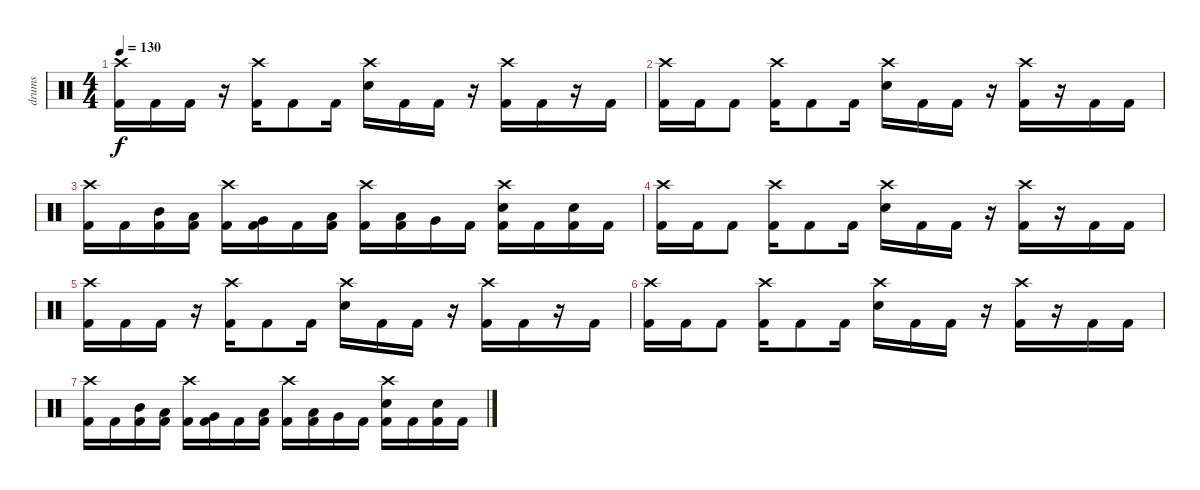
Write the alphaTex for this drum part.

\track ("drums" "drums") {instrument percussion}
\staff {score}
\articulation defaults
\ts (4 4)
\tempo 130
\clef neutral
\ks c
("Crash high (hit)" "Kick (hit) 2").16{dy f} "Kick (hit) 2".16 "Kick (hit) 2".16 r.16 ("Crash high (hit)" "Kick (hit) 2").16 "Kick (hit) 2".8 "Kick (hit) 2".16 ("Crash high (hit)" "Snare (hit) 2").16 "Kick (hit) 2".16 "Kick (hit) 2".16 r.16 ("Crash high (hit)" "Kick (hit) 2").16 "Kick (hit) 2".16 r.16 "Kick (hit) 2".16 |
("Crash high (hit)" "Kick (hit) 2").16 "Kick (hit) 2".16 "Kick (hit) 2".8 ("Crash high (hit)" "Kick (hit) 2").16 "Kick (hit) 2".8 "Kick (hit) 2".16 ("Crash high (hit)" "Snare (hit) 2").16 "Kick (hit) 2".16 "Kick (hit) 2".16 r.16 ("Crash high (hit)" "Kick (hit) 2").16 r.16 "Kick (hit) 2".16 "Kick (hit) 2".16 |
("Crash high (hit)" "Kick (hit) 2").16 "Kick (hit) 2".16 ("Mid Tom (hit)" "Kick (hit) 2").16 ("Low Tom (hit)" "Kick (hit) 2").16 ("Crash high (hit)" "Kick (hit) 2").16 ("Very Low Tom (hit)" "Kick (hit) 2").16 "Kick (hit) 2".16 ("Low Tom (hit)" "Kick (hit) 2").16 ("Crash high (hit)" "Kick (hit) 2").16 ("Low Tom (hit)" "Kick (hit) 2").16 "Very Low Tom (hit)".16 "Kick (hit) 2".16 ("Crash high (hit)" "Snare (hit) 2" "Kick (hit) 2").16 "Kick (hit) 2".16 ("Snare (hit) 2" "Kick (hit) 2").16 "Kick (hit) 2".16 |
("Crash high (hit)" "Kick (hit) 2").16 "Kick (hit) 2".16 "Kick (hit) 2".8 ("Crash high (hit)" "Kick (hit) 2").16 "Kick (hit) 2".8 "Kick (hit) 2".16 ("Crash high (hit)" "Snare (hit) 2").16 "Kick (hit) 2".16 "Kick (hit) 2".16 r.16 ("Crash high (hit)" "Kick (hit) 2").16 r.16 "Kick (hit) 2".16 "Kick (hit) 2".16 |
("Crash high (hit)" "Kick (hit) 2").16 "Kick (hit) 2".16 "Kick (hit) 2".16 r.16 ("Crash high (hit)" "Kick (hit) 2").16 "Kick (hit) 2".8 "Kick (hit) 2".16 ("Crash high (hit)" "Snare (hit) 2").16 "Kick (hit) 2".16 "Kick (hit) 2".16 r.16 ("Crash high (hit)" "Kick (hit) 2").16 "Kick (hit) 2".16 r.16 "Kick (hit) 2".16 |
("Crash high (hit)" "Kick (hit) 2").16 "Kick (hit) 2".16 "Kick (hit) 2".8 ("Crash high (hit)" "Kick (hit) 2").16 "Kick (hit) 2".8 "Kick (hit) 2".16 ("Crash high (hit)" "Snare (hit) 2").16 "Kick (hit) 2".16 "Kick (hit) 2".16 r.16 ("Crash high (hit)" "Kick (hit) 2").16 r.16 "Kick (hit) 2".16 "Kick (hit) 2".16 |
("Crash high (hit)" "Kick (hit) 2").16 "Kick (hit) 2".16 ("Mid Tom (hit)" "Kick (hit) 2").16 ("Low Tom (hit)" "Kick (hit) 2").16 ("Crash high (hit)" "Kick (hit) 2").16 ("Very Low Tom (hit)" "Kick (hit) 2").16 "Kick (hit) 2".16 ("Low Tom (hit)" "Kick (hit) 2").16 ("Crash high (hit)" "Kick (hit) 2").16 ("Low Tom (hit)" "Kick (hit) 2").16 "Very Low Tom (hit)".16 "Kick (hit) 2".16 ("Crash high (hit)" "Snare (hit) 2" "Kick (hit) 2").16 "Kick (hit) 2".16 ("Snare (hit) 2" "Kick (hit) 2").16 "Kick (hit) 2".16
